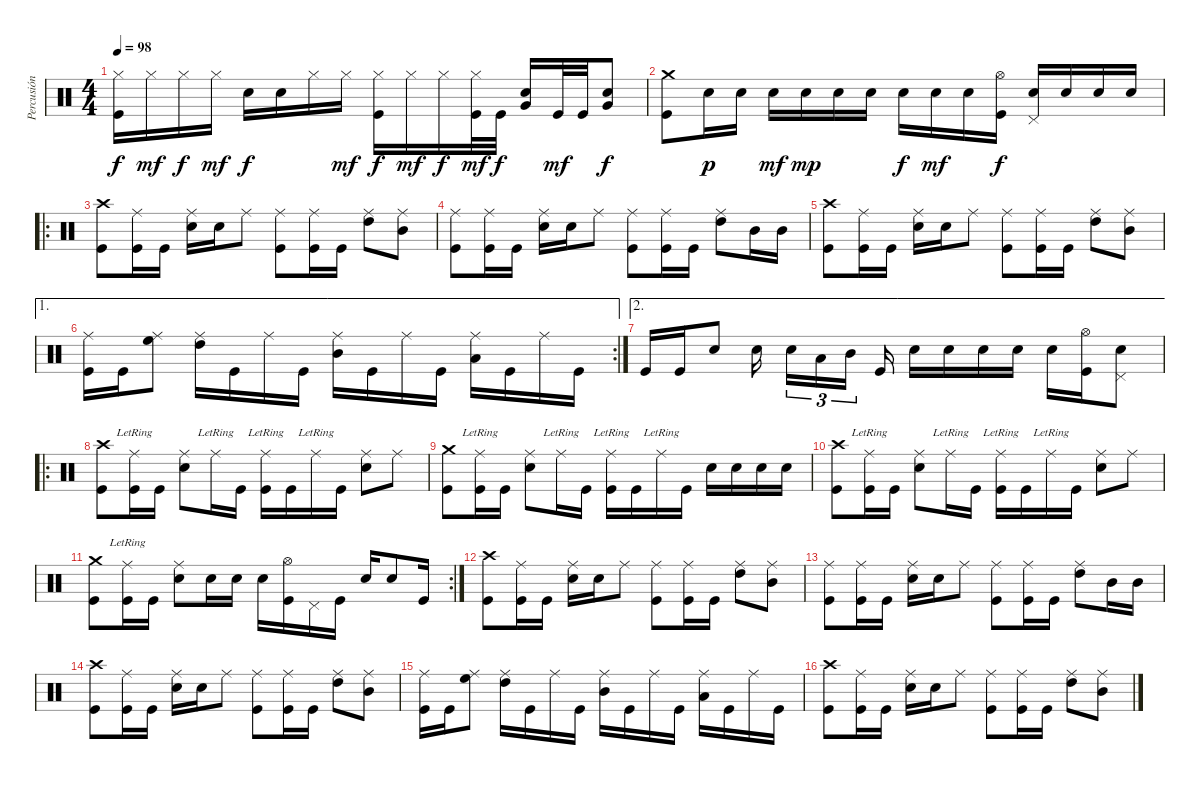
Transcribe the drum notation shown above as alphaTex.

\track ("Percusión" "Percusión") {instrument percussion}
\staff {score}
\articulation defaults
\ts (4 4)
\tempo 98
\clef neutral
\ks c
("Hi-Hat (closed)" "Kick (hit)").16{dy f} "Hi-Hat (closed)".16{dy mf} "Hi-Hat (closed)".16{dy f} "Hi-Hat (closed)".16{dy mf} "Electric Snare (hit)".16{dy f} "Electric Snare (hit)".16 "Hi-Hat (closed)".16 "Hi-Hat (closed)".16{dy mf} ("Hi-Hat (closed)" "Kick (hit)").16{dy f} "Hi-Hat (closed)".16{dy mf} "Hi-Hat (closed)".16{dy f} ("Hi-Hat (closed)" "Kick (hit)").32{dy mf} "Kick (hit)".32{dy f} ("Electric Snare (hit)" "Very Low Tom (hit)").16 "Kick (hit)".32{dy mf} "Kick (hit)".32 ("Electric Snare (hit)" "Very Low Tom (hit)").8{dy f} |
("Crash medium (hit)" "Kick (hit)").8 "Electric Snare (hit)".16{dy p} "Electric Snare (hit)".16 "Electric Snare (hit)".16{dy mf} "Electric Snare (hit)".16{dy mp} "Electric Snare (hit)".16 "Electric Snare (hit)".16 "Electric Snare (hit)".16{dy f} "Electric Snare (hit)".16{dy mf} "Electric Snare (hit)".16 ("Hi-Hat (open)" "Kick (hit)").16{dy f} ("Electric Snare (hit)" "Pedal Hi-Hat (hit)").16 "Electric Snare (hit)".16 "Electric Snare (hit)".16 "Electric Snare (hit)".16 |
\ro
("Crash high (hit)" "Kick (hit)").8 ("Ride (middle)" "Kick (hit)").16 "Kick (hit)".16 ("Ride (middle)" "Electric Snare (hit)").16 "Electric Snare (hit)".16 "Ride (middle)".8 ("Ride (middle)" "Kick (hit)").8 ("Ride (middle)" "Kick (hit)").16 "Kick (hit)".16 ("Ride (middle)" "High Tom (hit)").8 ("Ride (middle)" "Mid Tom (hit)").8 |
("Ride (middle)" "Kick (hit)").8 ("Ride (middle)" "Kick (hit)").16 "Kick (hit)".16 ("Ride (middle)" "Electric Snare (hit)").16 "Electric Snare (hit)".16 "Ride (middle)".8 ("Ride (middle)" "Kick (hit)").8 ("Ride (middle)" "Kick (hit)").16 "Kick (hit)".16 ("Ride (middle)" "High Tom (hit)").8 "Mid Tom (hit)".16 "Mid Tom (hit)".16 |
("Crash high (hit)" "Kick (hit)").8 ("Ride (middle)" "Kick (hit)").16 "Kick (hit)".16 ("Ride (middle)" "Electric Snare (hit)").16 "Electric Snare (hit)".16 "Ride (middle)".8 ("Ride (middle)" "Kick (hit)").8 ("Ride (middle)" "Kick (hit)").16 "Kick (hit)".16 ("Ride (middle)" "High Tom (hit)").8 ("Ride (middle)" "Mid Tom (hit)").8 |
\ae 1
\rc 2
("Ride (middle)" "Kick (hit)").16 "Kick (hit)".16 ("Ride (middle)" "High Floor Tom (hit)").8 ("Ride (middle)" "High Tom (hit)").16 "Kick (hit)".16 "Ride (middle)".16 "Kick (hit)".16 ("Ride (middle)" "Mid Tom (hit)").16 "Kick (hit)".16 "Ride (middle)".16 "Kick (hit)".16 ("Ride (middle)" "Low Tom (hit)").16 "Kick (hit)".16 "Ride (middle)".16 "Kick (hit)".16 |
\ae 2 "Kick (hit)".16 "Kick (hit)".16 "Electric Snare (hit)".8 "Electric Snare (hit)".16{beam splitsecondary} "Electric Snare (hit)".16{tu (3 2)} "Low Tom (hit)".16{tu (3 2)} "Mid Tom (hit)".16{tu (3 2) beam splitsecondary} "Kick (hit)".16 "Electric Snare (hit)".16 "Electric Snare (hit)".16 "Electric Snare (hit)".16 "Electric Snare (hit)".16 "Electric Snare (hit)".16
("Hi-Hat (open)" "Kick (hit)").16 ("Electric Snare (hit)" "Pedal Hi-Hat (hit)").8 |
\ro
("Crash high (hit)" "Kick (hit)").8 ("Ride (middle)"{lr} "Kick (hit)").16 "Kick (hit)".16 ("Ride (middle)" "Electric Snare (hit)").8 "Ride (middle)"{lr}.16 "Kick (hit)".16 ("Ride (middle)"{lr} "Kick (hit)").16 "Kick (hit)".16 "Ride (middle)"{lr}.16 "Kick (hit)".16 ("Ride (middle)" "Electric Snare (hit)").8 "Ride (middle)".8 |
("Crash medium (hit)" "Kick (hit)").8 ("Ride (middle)"{lr} "Kick (hit)").16 "Kick (hit)".16 ("Ride (middle)" "Electric Snare (hit)").8 "Ride (middle)"{lr}.16 "Kick (hit)".16 ("Ride (middle)"{lr} "Kick (hit)").16 "Kick (hit)".16 "Ride (middle)"{lr}.16 "Kick (hit)".16 "Electric Snare (hit)".16 "Electric Snare (hit)".16 "Electric Snare (hit)".16 "Electric Snare (hit)".16 |
("Crash high (hit)" "Kick (hit)").8 ("Ride (middle)"{lr} "Kick (hit)").16 "Kick (hit)".16 ("Ride (middle)" "Electric Snare (hit)").8 "Ride (middle)"{lr}.16 "Kick (hit)".16 ("Ride (middle)"{lr} "Kick (hit)").16 "Kick (hit)".16 "Ride (middle)"{lr}.16 "Kick (hit)".16 ("Ride (middle)" "Electric Snare (hit)").8 "Ride (middle)".8 |
\rc 2
("Crash medium (hit)" "Kick (hit)").8 ("Ride (middle)"{lr} "Kick (hit)").16 "Kick (hit)".16 ("Ride (middle)" "Electric Snare (hit)").8 "Electric Snare (hit)".16 "Electric Snare (hit)".16 "Electric Snare (hit)".16 ("Hi-Hat (open)" "Kick (hit)").16 "Pedal Hi-Hat (hit)".16 "Kick (hit)".16 "Electric Snare (hit)".16 "Electric Snare (hit)".8 "Kick (hit)".16 |
("Crash high (hit)" "Kick (hit)").8 ("Ride (middle)" "Kick (hit)").16 "Kick (hit)".16 ("Ride (middle)" "Electric Snare (hit)").16 "Electric Snare (hit)".16 "Ride (middle)".8 ("Ride (middle)" "Kick (hit)").8 ("Ride (middle)" "Kick (hit)").16 "Kick (hit)".16 ("Ride (middle)" "High Tom (hit)").8 ("Ride (middle)" "Mid Tom (hit)").8 |
("Ride (middle)" "Kick (hit)").8 ("Ride (middle)" "Kick (hit)").16 "Kick (hit)".16 ("Ride (middle)" "Electric Snare (hit)").16 "Electric Snare (hit)".16 "Ride (middle)".8 ("Ride (middle)" "Kick (hit)").8 ("Ride (middle)" "Kick (hit)").16 "Kick (hit)".16 ("Ride (middle)" "High Tom (hit)").8 "Mid Tom (hit)".16 "Mid Tom (hit)".16 |
("Crash high (hit)" "Kick (hit)").8 ("Ride (middle)" "Kick (hit)").16 "Kick (hit)".16 ("Ride (middle)" "Electric Snare (hit)").16 "Electric Snare (hit)".16 "Ride (middle)".8 ("Ride (middle)" "Kick (hit)").8 ("Ride (middle)" "Kick (hit)").16 "Kick (hit)".16 ("Ride (middle)" "High Tom (hit)").8 ("Ride (middle)" "Mid Tom (hit)").8 |
("Ride (middle)" "Kick (hit)").16 "Kick (hit)".16 ("Ride (middle)" "High Floor Tom (hit)").8 ("Ride (middle)" "High Tom (hit)").16 "Kick (hit)".16 "Ride (middle)".16 "Kick (hit)".16 ("Ride (middle)" "Mid Tom (hit)").16 "Kick (hit)".16 "Ride (middle)".16 "Kick (hit)".16 ("Ride (middle)" "Low Tom (hit)").16 "Kick (hit)".16 "Ride (middle)".16 "Kick (hit)".16 |
("Crash high (hit)" "Kick (hit)").8 ("Ride (middle)" "Kick (hit)").16 "Kick (hit)".16 ("Ride (middle)" "Electric Snare (hit)").16 "Electric Snare (hit)".16 "Ride (middle)".8 ("Ride (middle)" "Kick (hit)").8 ("Ride (middle)" "Kick (hit)").16 "Kick (hit)".16 ("Ride (middle)" "High Tom (hit)").8 ("Ride (middle)" "Mid Tom (hit)").8
